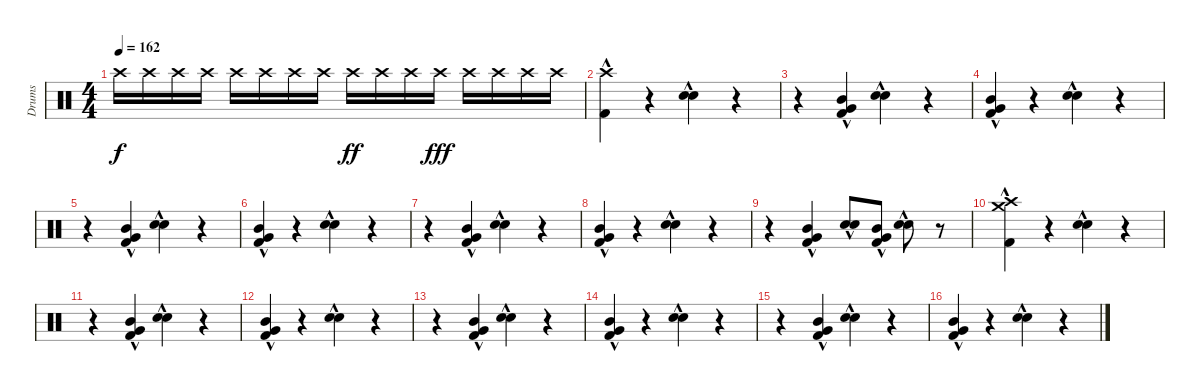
\track ("Drums" "Drums") {instrument percussion}
\staff {score}
\articulation defaults
\ts (4 4)
\tempo 162
\clef neutral
\ks c "Crash high (hit)".16{dy f} "Crash high (hit)".16 "Crash high (hit)".16 "Crash high (hit)".16 "Crash high (hit)".16 "Crash high (hit)".16 "Crash high (hit)".16 "Crash high (hit)".16 "Crash high (hit)".16{dy ff} "Crash high (hit)".16 "Crash high (hit)".16 "Crash high (hit)".16{dy fff} "Crash high (hit)".16 "Crash high (hit)".16 "Crash high (hit)".16 "Crash high (hit)".16
|
("Crash high (hit)"{hac} "Kick (hit) 2"{hac}).4 r.4 ("Electric Snare (hit)"{hac} "Electric Snare (hit)"{hac}).4 r.4 |
r.4 ("Mid Tom (hit)"{hac} "Very Low Tom (hit)"{hac} "Kick (hit) 2"{hac}).4 ("Electric Snare (hit)"{hac} "Electric Snare (hit)"{hac}).4 r.4 |
("Mid Tom (hit)"{hac} "Very Low Tom (hit)"{hac} "Kick (hit) 2"{hac}).4 r.4 ("Electric Snare (hit)"{hac} "Electric Snare (hit)"{hac}).4 r.4 |
r.4 ("Mid Tom (hit)"{hac} "Very Low Tom (hit)"{hac} "Kick (hit) 2"{hac}).4 ("Electric Snare (hit)"{hac} "Electric Snare (hit)"{hac}).4 r.4 |
("Mid Tom (hit)"{hac} "Very Low Tom (hit)"{hac} "Kick (hit) 2"{hac}).4 r.4 ("Electric Snare (hit)"{hac} "Electric Snare (hit)"{hac}).4 r.4 |
r.4 ("Mid Tom (hit)"{hac} "Very Low Tom (hit)"{hac} "Kick (hit) 2"{hac}).4 ("Electric Snare (hit)"{hac} "Electric Snare (hit)"{hac}).4 r.4 |
("Mid Tom (hit)"{hac} "Very Low Tom (hit)"{hac} "Kick (hit) 2"{hac}).4 r.4 ("Electric Snare (hit)"{hac} "Electric Snare (hit)"{hac}).4 r.4 |
r.4 ("Mid Tom (hit)"{hac} "Very Low Tom (hit)"{hac} "Kick (hit) 2"{hac}).4 ("Electric Snare (hit)"{hac} "Electric Snare (hit)"{hac}).8 ("Mid Tom (hit)"{hac} "Very Low Tom (hit)"{hac} "Kick (hit) 2"{hac}).8 ("Electric Snare (hit)"{hac} "Electric Snare (hit)"{hac}).8 r.8 |
("Crash medium (hit)" "Crash high (hit)"{hac} "Kick (hit) 2"{hac}).4 r.4 ("Electric Snare (hit)"{hac} "Electric Snare (hit)"{hac}).4 r.4 |
r.4 ("Mid Tom (hit)"{hac} "Very Low Tom (hit)"{hac} "Kick (hit) 2"{hac}).4 ("Electric Snare (hit)"{hac} "Electric Snare (hit)"{hac}).4 r.4 |
("Mid Tom (hit)"{hac} "Very Low Tom (hit)"{hac} "Kick (hit) 2"{hac}).4 r.4 ("Electric Snare (hit)"{hac} "Electric Snare (hit)"{hac}).4 r.4 |
r.4 ("Mid Tom (hit)"{hac} "Very Low Tom (hit)"{hac} "Kick (hit) 2"{hac}).4 ("Electric Snare (hit)"{hac} "Electric Snare (hit)"{hac}).4 r.4 |
("Mid Tom (hit)"{hac} "Very Low Tom (hit)"{hac} "Kick (hit) 2"{hac}).4 r.4 ("Electric Snare (hit)"{hac} "Electric Snare (hit)"{hac}).4 r.4 |
r.4 ("Mid Tom (hit)"{hac} "Very Low Tom (hit)"{hac} "Kick (hit) 2"{hac}).4 ("Electric Snare (hit)"{hac} "Electric Snare (hit)"{hac}).4 r.4 |
("Mid Tom (hit)"{hac} "Very Low Tom (hit)"{hac} "Kick (hit) 2"{hac}).4 r.4 ("Electric Snare (hit)"{hac} "Electric Snare (hit)"{hac}).4 r.4
